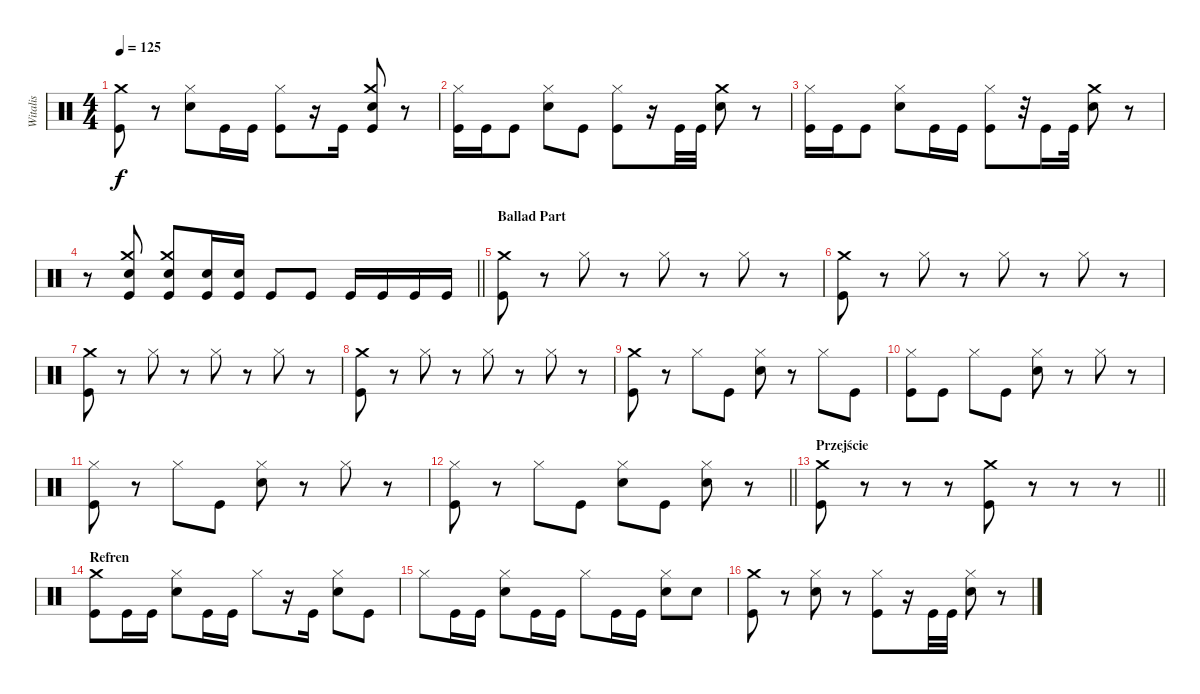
\track ("Witalis" "Witalis") {instrument percussion}
\staff {score}
\articulation defaults
\ts (4 4)
\tempo 125
\clef neutral
\ks c
("Kick (hit)" "Crash medium (hit)").8{dy f} r.8 ("Hi-Hat (closed)" "Snare (hit) 2").8 "Kick (hit)".16 "Kick (hit)".16 ("Hi-Hat (closed)" "Kick (hit)").8 r.16 "Kick (hit)".16 ("Kick (hit)" "Snare (hit) 2" "Crash medium (hit)").8 r.8 |
("Hi-Hat (closed)" "Kick (hit)").16 "Kick (hit)".16 "Kick (hit)".8 ("Hi-Hat (closed)" "Snare (hit) 2").8 "Kick (hit)".8 ("Hi-Hat (closed)" "Kick (hit)").8 r.16 "Kick (hit)".32 "Kick (hit)".32 ("Snare (hit) 2" "Crash medium (hit)").8 r.8 |
("Hi-Hat (closed)" "Kick (hit)").16 "Kick (hit)".16 "Kick (hit)".8 ("Hi-Hat (closed)" "Snare (hit) 2").8 "Kick (hit)".16 "Kick (hit)".16 ("Hi-Hat (closed)" "Kick (hit)").8 r.32 "Kick (hit)".16 "Kick (hit)".32 ("Snare (hit) 2" "Crash medium (hit)").8 r.8 |
\barLineRight lightlight
r.8 ("Kick (hit)" "Snare (hit) 2" "Crash medium (hit)").8 ("Kick (hit)" "Snare (hit) 2" "Crash medium (hit)").8 ("Kick (hit)" "Snare (hit) 2").16 ("Kick (hit)" "Snare (hit) 2").16 "Kick (hit)".8 "Kick (hit)".8 "Kick (hit)".16 "Kick (hit)".16 "Kick (hit)".16 "Kick (hit)".16 |
\section ("" "Ballad Part")
("Kick (hit)" "Crash medium (hit)").8 r.8 "Hi-Hat (closed)".8 r.8 "Hi-Hat (closed)".8 r.8 "Hi-Hat (closed)".8 r.8 |
("Kick (hit)" "Crash medium (hit)").8 r.8 "Hi-Hat (closed)".8 r.8 "Hi-Hat (closed)".8 r.8 "Hi-Hat (closed)".8 r.8 |
("Kick (hit)" "Crash medium (hit)").8 r.8 "Hi-Hat (closed)".8 r.8 "Hi-Hat (closed)".8 r.8 "Hi-Hat (closed)".8 r.8 |
("Kick (hit)" "Crash medium (hit)").8 r.8 "Hi-Hat (closed)".8 r.8 "Hi-Hat (closed)".8 r.8 "Hi-Hat (closed)".8 r.8 |
("Kick (hit)" "Crash medium (hit)").8 r.8 "Hi-Hat (closed)".8 "Kick (hit)".8 ("Hi-Hat (closed)" "Snare (hit) 2").8 r.8 "Hi-Hat (closed)".8 "Kick (hit)".8 |
("Hi-Hat (closed)" "Kick (hit)").8 "Kick (hit)".8 "Hi-Hat (closed)".8 "Kick (hit)".8 ("Hi-Hat (closed)" "Snare (hit) 2").8 r.8 "Hi-Hat (closed)".8 r.8 |
("Hi-Hat (closed)" "Kick (hit)").8 r.8 "Hi-Hat (closed)".8 "Kick (hit)".8 ("Hi-Hat (closed)" "Snare (hit) 2").8 r.8 "Hi-Hat (closed)".8 r.8 |
\barLineRight lightlight
("Hi-Hat (closed)" "Kick (hit)").8 r.8 "Hi-Hat (closed)".8 "Kick (hit)".8 ("Hi-Hat (closed)" "Snare (hit) 2").8 "Kick (hit)".8 ("Hi-Hat (closed)" "Snare (hit) 2").8 r.8 |
\section ("" "Przejście")
\barLineRight lightlight
("Kick (hit)" "Crash medium (hit)").8 r.8 r.8 r.8 ("Kick (hit)" "Crash medium (hit)").8 r.8 r.8 r.8 |
\section ("" "Refren")
("Kick (hit)" "Crash medium (hit)").8 "Kick (hit)".16 "Kick (hit)".16 ("Hi-Hat (closed)" "Snare (hit) 2").8 "Kick (hit)".16 "Kick (hit)".16 "Hi-Hat (closed)".8 r.16 "Kick (hit)".16 ("Hi-Hat (closed)" "Snare (hit) 2").8 "Kick (hit)".8 |
"Hi-Hat (closed)".8 "Kick (hit)".16 "Kick (hit)".16 ("Hi-Hat (closed)" "Snare (hit) 2").8 "Kick (hit)".16 "Kick (hit)".16 "Hi-Hat (closed)".8 "Kick (hit)".16 "Kick (hit)".16 ("Hi-Hat (closed)" "Snare (hit) 2").8 "Snare (hit) 2".8 |
("Kick (hit)" "Crash medium (hit)").8 r.8 ("Hi-Hat (closed)" "Snare (hit) 2").8 r.8 ("Hi-Hat (closed)" "Kick (hit)").8 r.16 "Kick (hit)".32 "Kick (hit)".32 ("Hi-Hat (closed)" "Snare (hit) 2").8 r.8
